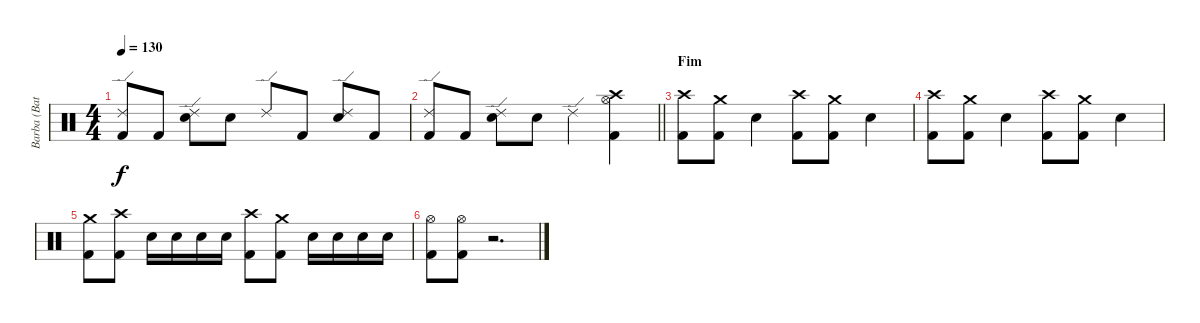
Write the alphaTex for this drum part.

\track ("Barba (Bateria)" "Barba (Bat") {instrument percussion}
\staff {score}
\articulation defaults
\ts (4 4)
\tempo 130
\clef neutral
\ks c
("Ride (edge) 2" "Kick (hit) 2").8{dy f} "Kick (hit) 2".8 ("Ride (edge) 2" "Electric Snare (hit)").8 "Electric Snare (hit)".8 "Ride (edge) 2".8 "Kick (hit) 2".8 ("Ride (edge) 2" "Electric Snare (hit)").8 "Kick (hit) 2".8 |
\barLineRight lightlight
("Ride (edge) 2" "Kick (hit) 2").8 "Kick (hit) 2".8 ("Ride (edge) 2" "Electric Snare (hit)").8 "Electric Snare (hit)".8 "Ride (edge) 2".4 ("Crash high (hit)" "Hi-Hat (open)" "Kick (hit) 2").4 |
\section ("" "Fim")
("Crash high (hit)" "Kick (hit) 2").8 ("Crash medium (hit)" "Kick (hit) 2").8 "Electric Snare (hit)".4 ("Crash high (hit)" "Kick (hit) 2").8 ("Crash medium (hit)" "Kick (hit) 2").8 "Electric Snare (hit)".4 |
("Crash high (hit)" "Kick (hit) 2").8 ("Crash medium (hit)" "Kick (hit) 2").8 "Electric Snare (hit)".4 ("Crash high (hit)" "Kick (hit) 2").8 ("Crash medium (hit)" "Kick (hit) 2").8 "Electric Snare (hit)".4 |
("Crash medium (hit)" "Kick (hit) 2").8 ("Crash high (hit)" "Kick (hit) 2").8 "Electric Snare (hit)".16 "Electric Snare (hit)".16 "Electric Snare (hit)".16 "Electric Snare (hit)".16 ("Crash high (hit)" "Kick (hit) 2").8 ("Crash medium (hit)" "Kick (hit) 2").8 "Electric Snare (hit)".16 "Electric Snare (hit)".16 "Electric Snare (hit)".16 "Electric Snare (hit)".16 |
("Hi-Hat (open)" "Kick (hit) 2").8 ("Hi-Hat (open)" "Kick (hit) 2").8 r.2{d}
